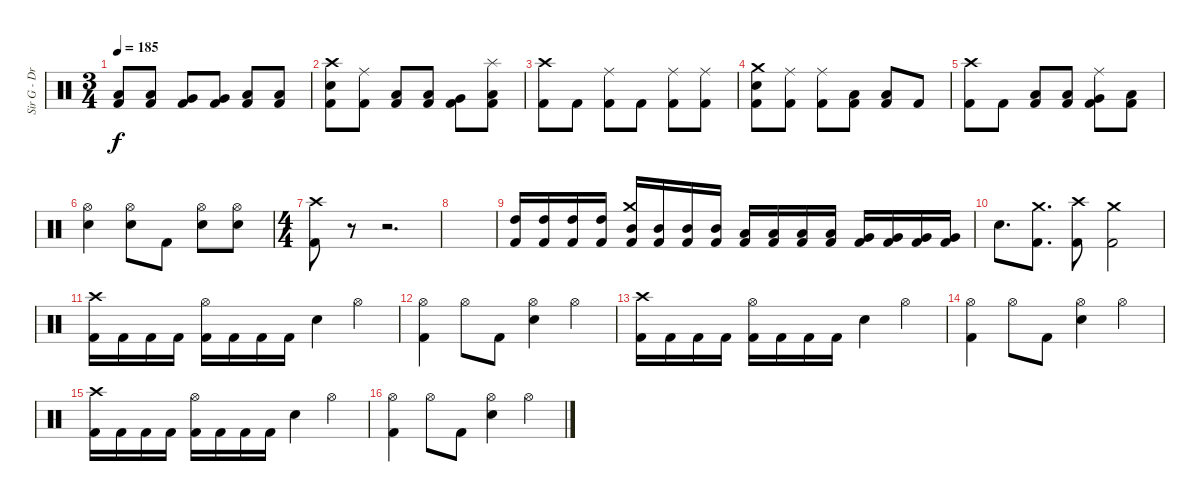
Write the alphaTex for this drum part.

\track ("Sir G - Drums" "Sir G - Dr") {instrument percussion}
\staff {score}
\articulation defaults
\ts (3 4)
\tempo 185
\clef neutral
\ks c
("Kick (hit) 2" "Low Tom (hit)").8{dy f} ("Kick (hit) 2" "Low Tom (hit)").8 ("Kick (hit) 2" "Very Low Tom (hit)").8 ("Kick (hit) 2" "Very Low Tom (hit)").8 ("Kick (hit) 2" "Low Floor Tom (hit)").8 ("Kick (hit) 2" "Low Floor Tom (hit)").8 |
("Kick (hit) 2" "Electric Snare (hit)" "Crash high (hit)").8 ("Kick (hit) 2" "Ride (middle)").8 ("Kick (hit) 2" "Low Tom (hit)").8 ("Kick (hit) 2" "Low Tom (hit)").8 ("Kick (hit) 2" "Very Low Tom (hit)").8 ("Kick (hit) 2" "Low Floor Tom (hit)" "Splash (hit)").8 |
("Kick (hit) 2" "Crash high (hit)").8 "Kick (hit) 2".8 ("Kick (hit) 2" "Ride (middle)").8 "Kick (hit) 2".8 ("Kick (hit) 2" "Ride (middle)").8 ("Kick (hit) 2" "Ride (middle)").8 |
("Kick (hit) 2" "Electric Snare (hit)" "Crash medium (hit)").8 ("Kick (hit) 2" "Ride (middle)").8 ("Kick (hit) 2" "Ride (middle)").8 ("Kick (hit) 2" "Low Floor Tom (hit)").8 ("Kick (hit) 2" "Low Floor Tom (hit)").8 "Kick (hit) 2".8 |
("Kick (hit) 2" "Crash high (hit)").8 "Kick (hit) 2".8 ("Kick (hit) 2" "Low Tom (hit)").8 ("Kick (hit) 2" "Low Tom (hit)").8 ("Kick (hit) 2" "Very Low Tom (hit)" "Ride (middle)").8 ("Kick (hit) 2" "Low Floor Tom (hit)").8 |
("Electric Snare (hit)" "Hi-Hat (open)").4 ("Electric Snare (hit)" "Hi-Hat (open)").8 "Kick (hit) 2".8 ("Electric Snare (hit)" "Hi-Hat (open)").8 ("Electric Snare (hit)" "Hi-Hat (open)").8 |
\ts (4 4)
("Kick (hit) 2" "Crash high (hit)").8 r.8{volume 0} r.2{d} |
|
("Kick (hit) 2" "High Tom (hit)").16{volume 14} ("Kick (hit) 2" "High Tom (hit)").16 ("Kick (hit) 2" "High Tom (hit)").16 ("Kick (hit) 2" "High Tom (hit)").16 ("Kick (hit) 2" "Mid Tom (hit)" "Crash medium (hit)").16 ("Kick (hit) 2" "Mid Tom (hit)").16 ("Kick (hit) 2" "Mid Tom (hit)").16 ("Kick (hit) 2" "Mid Tom (hit)").16 ("Kick (hit) 2" "Low Tom (hit)").16 ("Kick (hit) 2" "Low Tom (hit)").16 ("Kick (hit) 2" "Low Tom (hit)").16 ("Kick (hit) 2" "Low Tom (hit)").16 ("Kick (hit) 2" "Very Low Tom (hit)").16 ("Kick (hit) 2" "Very Low Tom (hit)").16 ("Kick (hit) 2" "Very Low Tom (hit)").16 ("Kick (hit) 2" "Very Low Tom (hit)").16 |
"Electric Snare (hit)".8{d} ("Kick (hit) 2" "Crash medium (hit)").8{d} ("Kick (hit) 2" "Crash high (hit)").8 ("Kick (hit) 2" "Crash medium (hit)").2 |
("Kick (hit) 2" "Crash high (hit)").16 "Kick (hit) 2".16 "Kick (hit) 2".16 "Kick (hit) 2".16 ("Kick (hit) 2" "Hi-Hat (open)").16 "Kick (hit) 2".16 "Kick (hit) 2".16 "Kick (hit) 2".16 "Electric Snare (hit)".4 "Hi-Hat (open)".4 |
("Kick (hit) 2" "Hi-Hat (open)").4 "Hi-Hat (open)".8 "Kick (hit) 2".8 ("Electric Snare (hit)" "Hi-Hat (open)").4 "Hi-Hat (open)".4 |
("Kick (hit) 2" "Crash high (hit)").16 "Kick (hit) 2".16 "Kick (hit) 2".16 "Kick (hit) 2".16 ("Kick (hit) 2" "Hi-Hat (open)").16 "Kick (hit) 2".16 "Kick (hit) 2".16 "Kick (hit) 2".16 "Electric Snare (hit)".4 "Hi-Hat (open)".4 |
("Kick (hit) 2" "Hi-Hat (open)").4 "Hi-Hat (open)".8 "Kick (hit) 2".8 ("Electric Snare (hit)" "Hi-Hat (open)").4 "Hi-Hat (open)".4 |
("Kick (hit) 2" "Crash high (hit)").16 "Kick (hit) 2".16 "Kick (hit) 2".16 "Kick (hit) 2".16 ("Kick (hit) 2" "Hi-Hat (open)").16 "Kick (hit) 2".16 "Kick (hit) 2".16 "Kick (hit) 2".16 "Electric Snare (hit)".4 "Hi-Hat (open)".4 |
("Kick (hit) 2" "Hi-Hat (open)").4 "Hi-Hat (open)".8 "Kick (hit) 2".8 ("Electric Snare (hit)" "Hi-Hat (open)").4 "Hi-Hat (open)".4
